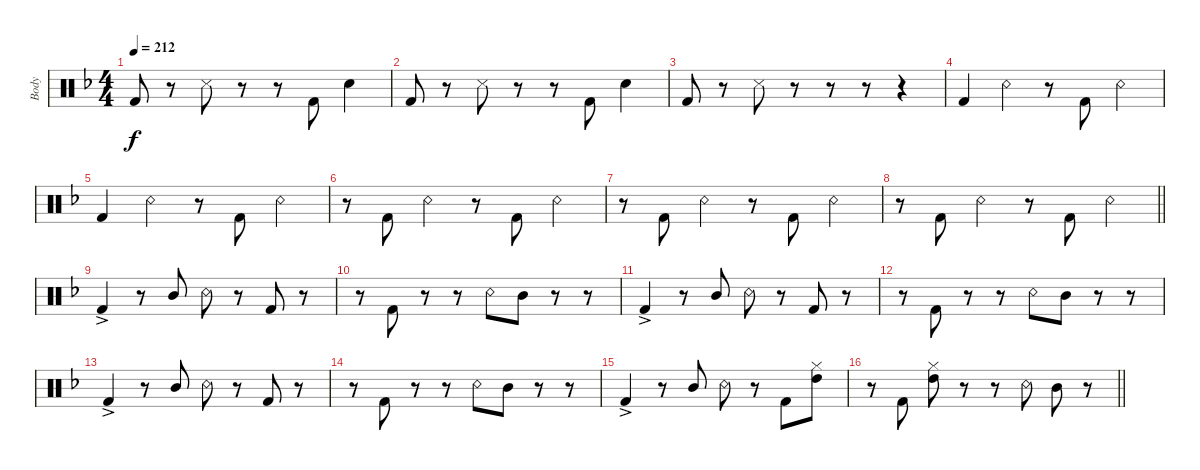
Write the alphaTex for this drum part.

\defaultSystemsLayout 2
\bracketExtendMode groupsimilarinstruments
\otherSystemsTrackNameOrientation horizontal
\track ("Body" "Body") {instrument percussion}
\staff {score}
\articulation defaults
\ts (4 4)
\scale
1.07077
\tempo 212
\accidentals auto
\clef neutral
\ottava regular
\simile none
\ks dminor "Kick (hit) 2"{acc forcenatural}.8{dy f beam Up}
r.8{beam Up} "Snare (side stick) 3"{acc forcenatural}.8{beam Down} r.8{beam Down} r.8{beam Down} "Kick (hit) 2"{acc forcenatural}.8{beam Up} "Snare (hit) 2"{acc forcenatural}.4{beam Down} |
\scale
0.929234 "Kick (hit) 2"{acc forcenatural}.8{beam Up} r.8{beam Up} "Snare (side stick) 3"{acc forcenatural}.8{beam Down} r.8{beam Down} r.8{beam Down} "Kick (hit) 2"{acc forcenatural}.8{beam Up} "Snare (hit) 2"{acc forcenatural}.4{beam Down} |
\scale
1.04804 "Kick (hit) 2"{acc forcenatural}.8{beam Up} r.8{beam Up} "Snare (side stick) 3"{acc forcenatural}.8{beam Down} r.8{beam Down} r.8{beam Down} r.8{beam Down} r.4{beam Down} |
\scale
0.951961 "Kick (hit) 2"{acc forcenatural}.4{beam Up} "Snare (rim shot)"{acc forcenatural}.4{beam Down} r.8{beam Down} "Kick (hit) 2"{acc forcenatural}.8{beam Up} "Snare (rim shot)"{acc forcenatural}.4{beam Down} |
\scale
1.05422
\scale
0.333333 "Kick (hit) 2"{acc forcenatural}.4{beam Up} "Snare (rim shot)"{acc forcenatural}.4{beam Down} r.8{beam Down} "Kick (hit) 2"{acc forcenatural}.8{beam Up} "Snare (rim shot)"{acc forcenatural}.4{beam Down} |
\scale
0.945776
\scale
0.333333 r.8{beam Down} "Kick (hit) 2"{acc forcenatural}.8{beam Up} "Snare (rim shot)"{acc forcenatural}.4{beam Down} r.8{beam Down} "Kick (hit) 2"{acc forcenatural}.8{beam Up} "Snare (rim shot)"{acc forcenatural}.4{beam Down} |
\scale
1.04336
\scale
0.333333 r.8{beam Down} "Kick (hit) 2"{acc forcenatural}.8{beam Up} "Snare (rim shot)"{acc forcenatural}.4{beam Down} r.8{beam Down} "Kick (hit) 2"{acc forcenatural}.8{beam Up} "Snare (rim shot)"{acc forcenatural}.4{beam Down} |
\scale
0.95664
\scale
0.333333
\barLineRight lightlight
r.8{beam Down} "Kick (hit) 2"{acc forcenatural}.8{beam Up} "Snare (rim shot)"{acc forcenatural}.4{beam Down} r.8{beam Down} "Kick (hit) 2"{acc forcenatural}.8{beam Up} "Snare (rim shot)"{acc forcenatural}.4{beam Down} |
\scale
1.05422
\scale
0.333333 "Kick (hit) 2"{ac acc forcenatural}.4{beam Up} r.8{beam Up} "Mid Tom (hit)"{acc forcenatural}.8{beam Up} "Snare (rim shot)"{acc forcenatural}.8{beam Down} r.8{beam Down} "Kick (hit) 2"{acc forcenatural}.8{beam Up} r.8{beam Up} |
\scale
0.945776
\scale
0.333333 r.8{beam Down} "Kick (hit) 2"{acc forcenatural}.8{beam Up} r.8{beam Up} r.8{beam Up} "Snare (rim shot)"{acc forcenatural}.8{beam Down} "Mid Tom (hit)"{acc forcenatural}.8{beam Down} r.8{beam Down} r.8{beam Down} |
\scale
1.05422 "Kick (hit) 2"{ac acc forcenatural}.4{beam Up} r.8{beam Up} "Mid Tom (hit)"{acc forcenatural}.8{beam Up} "Snare (rim shot)"{acc forcenatural}.8{beam Down} r.8{beam Down} "Kick (hit) 2"{acc forcenatural}.8{beam Up} r.8{beam Up} |
\scale
0.945776 r.8{beam Down} "Kick (hit) 2"{acc forcenatural}.8{beam Up} r.8{beam Up} r.8{beam Up} "Snare (rim shot)"{acc forcenatural}.8{beam Down} "Mid Tom (hit)"{acc forcenatural}.8{beam Down} r.8{beam Down} r.8{beam Down} |
\scale
1.05422
\scale
0.333333 "Kick (hit) 2"{ac acc forcenatural}.4{beam Up} r.8{beam Up} "Mid Tom (hit)"{acc forcenatural}.8{beam Up} "Snare (rim shot)"{acc forcenatural}.8{beam Down} r.8{beam Down} "Kick (hit) 2"{acc forcenatural}.8{beam Up} r.8{beam Up} |
\scale
0.945776
\scale
0.333333 r.8{beam Down} "Kick (hit) 2"{acc forcenatural}.8{beam Up} r.8{beam Up} r.8{beam Up} "Snare (rim shot)"{acc forcenatural}.8{beam Down} "Mid Tom (hit)"{acc forcenatural}.8{beam Down} r.8{beam Down} r.8{beam Down} |
\scale
1.04954
\scale
0.333333 "Kick (hit) 2"{ac acc forcenatural}.4{beam Up} r.8{beam Up} "Mid Tom (hit)"{acc forcenatural}.8{beam Up} "Snare (rim shot)"{acc forcenatural}.8{beam Down} r.8{beam Down} "Kick (hit) 2"{acc forcenatural}.8{beam Down} ("High Tom (hit)"{acc forcenatural} "Hi-Hat (closed)"{acc forcenatural}).8{beam Down} |
\scale
0.950455
\scale
0.333333
\barLineRight lightlight
r.8{beam Down} "Kick (hit) 2"{acc forcenatural}.8{beam Up} ("High Tom (hit)"{acc forcenatural} "Hi-Hat (closed)"{acc forcenatural}).8{beam Down} r.8{beam Down} r.8{beam Down} "Snare (rim shot)"{acc forcenatural}.8{beam Down} "Mid Tom (hit)"{acc forcenatural}.8{beam Down} r.8{beam Down}
